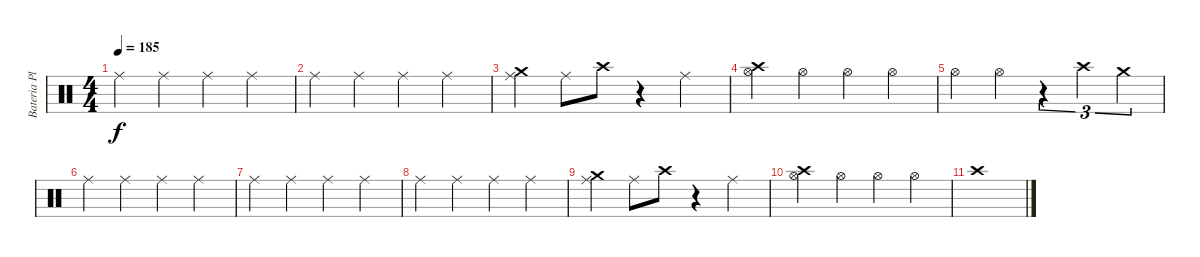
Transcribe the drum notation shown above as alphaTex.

\track ("Bateria Platos" "Bateria Pl") {instrument percussion}
\staff {score}
\articulation defaults
\ts (4 4)
\tempo 185
\clef neutral
\ks c "Ride (middle)".4{dy f} "Ride (middle)".4 "Ride (middle)".4 "Ride (middle)".4
|
"Ride (middle)".4 "Ride (middle)".4 "Ride (middle)".4 "Ride (middle)".4 |
("Crash medium (hit)" "Ride (middle)").4 "Ride (middle)".8 "Crash high (hit)".8 r.4 "Ride (middle)".4 |
("Crash high (hit)" "Hi-Hat (open)").4 "Hi-Hat (open)".4 "Hi-Hat (open)".4 "Hi-Hat (open)".4 |
"Hi-Hat (open)".4 "Hi-Hat (open)".4 r.4{tu (3 2)} "Crash high (hit)".4{tu (3 2)} "Crash medium (hit)".4{tu (3 2)} |
"Ride (middle)".4 "Ride (middle)".4 "Ride (middle)".4 "Ride (middle)".4 |
"Ride (middle)".4 "Ride (middle)".4 "Ride (middle)".4 "Ride (middle)".4 |
"Ride (middle)".4 "Ride (middle)".4 "Ride (middle)".4 "Ride (middle)".4 |
("Crash medium (hit)" "Ride (middle)").4 "Ride (middle)".8 "Crash high (hit)".8 r.4 "Ride (middle)".4 |
("Crash high (hit)" "Hi-Hat (open)").4 "Hi-Hat (open)".4 "Hi-Hat (open)".4 "Hi-Hat (open)".4 |
"Crash high (hit)".1
